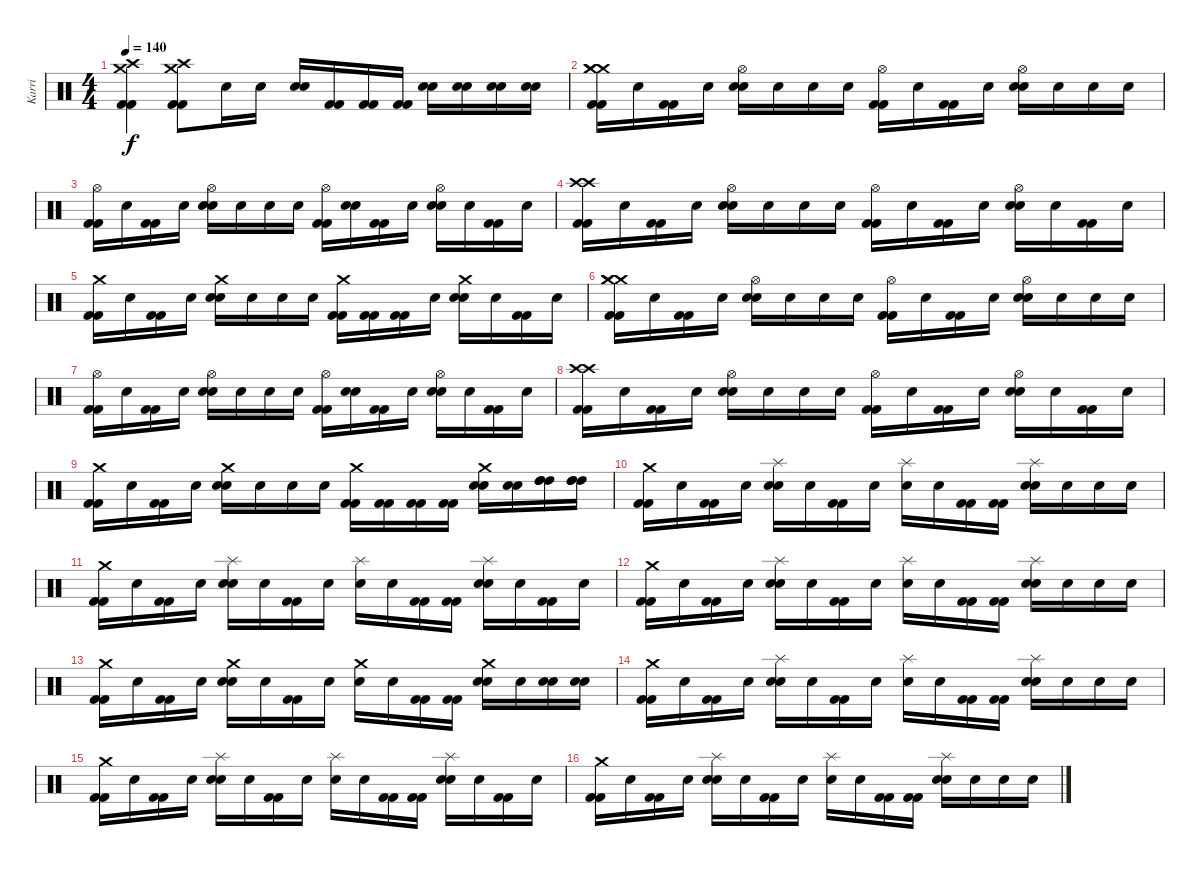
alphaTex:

\track ("Karri" "Karri") {instrument percussion}
\staff {score}
\articulation defaults
\ts (4 4)
\tempo 140
\clef neutral
\ks c
("Crash high (hit)" "Crash medium (hit)" "Kick (hit) 2" "Kick (hit) 2").4{dy f} ("Crash high (hit)" "Crash medium (hit)" "Kick (hit) 2" "Kick (hit) 2").8 "Snare (hit)"{x}.16 "Snare (hit)"{x}.16 ("Snare (hit) 2"{x} "Snare (hit) 2"{x}).16 ("Kick (hit) 2"{x} "Kick (hit) 2"{x}).16 ("Kick (hit) 2" "Kick (hit) 2").16 ("Kick (hit) 2" "Kick (hit) 2").16 ("Snare (hit) 2" "Snare (hit) 2").16 ("Snare (hit)"{x} "Snare (hit)"{x}).16 ("Snare (hit)"{x} "Snare (hit)"{x}).16 ("Snare (hit)"{x} "Snare (hit)"{x}).16 |
("Crash medium (hit)" "Crash medium (hit)" "Crash medium (hit)" "Kick (hit) 2" "Kick (hit) 2").16 "Snare (hit)"{x}.16 ("Kick (hit) 2"{x} "Kick (hit) 2"{x}).16 "Snare (hit)"{x}.16 ("Hi-Hat (open)" "Snare (hit) 2" "Snare (hit) 2").16 "Snare (hit)"{x}.16 "Snare (hit)"{x}.16 "Snare (hit)"{x}.16 ("Hi-Hat (open)" "Kick (hit) 2" "Kick (hit) 2").16 "Snare (hit)"{x}.16 ("Kick (hit) 2" "Kick (hit) 2").16 "Snare (hit)"{x}.16 ("Hi-Hat (open)" "Snare (hit) 2" "Snare (hit) 2").16 "Snare (hit)"{x}.16 "Snare (hit)"{x}.16 "Snare (hit)"{x}.16 |
("Hi-Hat (open)" "Kick (hit) 2" "Kick (hit) 2").16 "Snare (hit)"{x}.16 ("Kick (hit) 2"{x} "Kick (hit) 2"{x}).16 "Snare (hit)"{x}.16 ("Hi-Hat (open)" "Snare (hit) 2" "Snare (hit) 2").16 "Snare (hit)"{x}.16 "Snare (hit)"{x}.16 "Snare (hit)"{x}.16 ("Hi-Hat (open)" "Kick (hit) 2" "Kick (hit) 2").16 ("Snare (hit)"{x} "Snare (hit)"{x}).16 ("Kick (hit) 2" "Kick (hit) 2").16 "Snare (hit)"{x}.16 ("Hi-Hat (open)" "Snare (hit) 2" "Snare (hit) 2").16 "Snare (hit)"{x}.16 ("Kick (hit) 2" "Kick (hit) 2").16 "Snare (hit)"{x}.16 |
("Crash high (hit)" "Crash high (hit)" "Kick (hit) 2" "Kick (hit) 2").16 "Snare (hit)"{x}.16 ("Kick (hit) 2"{x} "Kick (hit) 2"{x}).16 "Snare (hit)"{x}.16 ("Hi-Hat (open)" "Snare (hit) 2" "Snare (hit) 2").16 "Snare (hit)"{x}.16 "Snare (hit)"{x}.16 "Snare (hit)"{x}.16 ("Hi-Hat (open)" "Kick (hit) 2" "Kick (hit) 2").16 "Snare (hit)"{x}.16 ("Kick (hit) 2" "Kick (hit) 2").16 "Snare (hit)"{x}.16 ("Hi-Hat (open)" "Snare (hit) 2" "Snare (hit) 2").16 "Snare (hit)"{x}.16 ("Kick (hit) 2"{x} "Kick (hit) 2"{x}).16 "Snare (hit)"{x}.16 |
("Crash medium (hit)" "Kick (hit) 2" "Kick (hit) 2").16 "Snare (hit)"{x}.16 ("Kick (hit) 2" "Kick (hit) 2").16 "Snare (hit)"{x}.16 ("Crash medium (hit)" "Snare (hit) 2" "Snare (hit) 2").16 "Snare (hit)"{x}.16 "Snare (hit)"{x}.16 "Snare (hit)"{x}.16 ("Crash medium (hit)" "Kick (hit) 2"{x} "Kick (hit) 2"{x}).16 ("Kick (hit) 2"{x} "Kick (hit) 2"{x}).16 ("Kick (hit) 2" "Kick (hit) 2").16 "Snare (hit) 2"{x}.16 ("Crash medium (hit)" "Snare (hit) 2" "Snare (hit) 2").16 "Snare (hit)"{x}.16 ("Kick (hit) 2" "Kick (hit) 2").16 "Snare (hit)"{x}.16 |
("Crash medium (hit)" "Crash medium (hit)" "Crash medium (hit)" "Kick (hit) 2" "Kick (hit) 2").16 "Snare (hit)"{x}.16 ("Kick (hit) 2"{x} "Kick (hit) 2"{x}).16 "Snare (hit)"{x}.16 ("Hi-Hat (open)" "Snare (hit) 2" "Snare (hit) 2").16 "Snare (hit)"{x}.16 "Snare (hit)"{x}.16 "Snare (hit)"{x}.16 ("Hi-Hat (open)" "Kick (hit) 2" "Kick (hit) 2").16 "Snare (hit)"{x}.16 ("Kick (hit) 2" "Kick (hit) 2").16 "Snare (hit)"{x}.16 ("Hi-Hat (open)" "Snare (hit) 2" "Snare (hit) 2").16 "Snare (hit)"{x}.16 "Snare (hit)"{x}.16 "Snare (hit)"{x}.16 |
("Hi-Hat (open)" "Kick (hit) 2" "Kick (hit) 2").16 "Snare (hit)"{x}.16 ("Kick (hit) 2"{x} "Kick (hit) 2"{x}).16 "Snare (hit)"{x}.16 ("Hi-Hat (open)" "Snare (hit) 2" "Snare (hit) 2").16 "Snare (hit)"{x}.16 "Snare (hit)"{x}.16 "Snare (hit)"{x}.16 ("Hi-Hat (open)" "Kick (hit) 2" "Kick (hit) 2").16 ("Snare (hit)"{x} "Snare (hit)"{x}).16 ("Kick (hit) 2" "Kick (hit) 2").16 "Snare (hit)"{x}.16 ("Hi-Hat (open)" "Snare (hit) 2" "Snare (hit) 2").16 "Snare (hit)"{x}.16 ("Kick (hit) 2" "Kick (hit) 2").16 "Snare (hit)"{x}.16 |
("Crash high (hit)" "Crash high (hit)" "Kick (hit) 2" "Kick (hit) 2").16 "Snare (hit)"{x}.16 ("Kick (hit) 2"{x} "Kick (hit) 2"{x}).16 "Snare (hit)"{x}.16 ("Hi-Hat (open)" "Snare (hit) 2" "Snare (hit) 2").16 "Snare (hit)"{x}.16 "Snare (hit)"{x}.16 "Snare (hit)"{x}.16 ("Hi-Hat (open)" "Kick (hit) 2" "Kick (hit) 2").16 "Snare (hit)"{x}.16 ("Kick (hit) 2" "Kick (hit) 2").16 "Snare (hit)"{x}.16 ("Hi-Hat (open)" "Snare (hit) 2" "Snare (hit) 2").16 "Snare (hit)"{x}.16 ("Kick (hit) 2"{x} "Kick (hit) 2"{x}).16 "Snare (hit)"{x}.16 |
("Crash medium (hit)" "Kick (hit) 2" "Kick (hit) 2").16 "Snare (hit)"{x}.16 ("Kick (hit) 2" "Kick (hit) 2").16 "Snare (hit)"{x}.16 ("Crash medium (hit)" "Snare (hit) 2" "Snare (hit) 2").16 "Snare (hit)"{x}.16 "Snare (hit)"{x}.16 "Snare (hit)"{x}.16 ("Crash medium (hit)" "Kick (hit) 2"{x} "Kick (hit) 2"{x}).16 ("Kick (hit) 2"{x} "Kick (hit) 2"{x}).16 ("Kick (hit) 2" "Kick (hit) 2").16 ("Kick (hit) 2" "Kick (hit) 2").16 ("Crash medium (hit)" "Snare (hit) 2" "Snare (hit) 2").16 ("Snare (hit) 2" "Snare (hit) 2").16 ("High Tom (hit)" "High Tom (hit)" "High Tom (hit)").16 ("High Tom (hit)" "High Tom (hit)" "High Tom (hit)").16 |
("Crash medium (hit)" "Kick (hit) 2" "Kick (hit) 2").16 "Snare (hit)"{x}.16 ("Kick (hit) 2" "Kick (hit) 2").16 "Snare (hit)"{x}.16 ("Splash (hit)" "Snare (hit) 2" "Snare (hit) 2").16 "Snare (hit)"{x}.16 ("Kick (hit) 2" "Kick (hit) 2").16 "Snare (hit)"{x}.16 ("Splash (hit)" "Snare (hit)"{x}).16 "Snare (hit)"{x}.16 ("Kick (hit) 2" "Kick (hit) 2").16 ("Kick (hit) 2" "Kick (hit) 2").16 ("Splash (hit)" "Snare (hit) 2" "Snare (hit) 2").16 "Snare (hit)"{x}.16 "Snare (hit)"{x}.16 "Snare (hit)"{x}.16 |
("Crash medium (hit)" "Kick (hit) 2" "Kick (hit) 2").16 "Snare (hit)"{x}.16 ("Kick (hit) 2" "Kick (hit) 2").16 "Snare (hit)"{x}.16 ("Splash (hit)" "Snare (hit) 2" "Snare (hit) 2").16 "Snare (hit)"{x}.16 ("Kick (hit) 2" "Kick (hit) 2").16 "Snare (hit)"{x}.16 ("Splash (hit)" "Snare (hit)"{x}).16 "Snare (hit)"{x}.16 ("Kick (hit) 2" "Kick (hit) 2").16 ("Kick (hit) 2" "Kick (hit) 2").16 ("Splash (hit)" "Snare (hit) 2" "Snare (hit) 2").16 "Snare (hit)"{x}.16 ("Kick (hit) 2" "Kick (hit) 2").16 "Snare (hit)"{x}.16 |
("Crash medium (hit)" "Kick (hit) 2" "Kick (hit) 2").16 "Snare (hit)"{x}.16 ("Kick (hit) 2" "Kick (hit) 2").16 "Snare (hit)"{x}.16 ("Splash (hit)" "Snare (hit) 2" "Snare (hit) 2").16 "Snare (hit)"{x}.16 ("Kick (hit) 2" "Kick (hit) 2").16 "Snare (hit)"{x}.16 ("Splash (hit)" "Snare (hit)"{x}).16 "Snare (hit)"{x}.16 ("Kick (hit) 2" "Kick (hit) 2").16 ("Kick (hit) 2" "Kick (hit) 2").16 ("Splash (hit)" "Snare (hit) 2" "Snare (hit) 2").16 "Snare (hit)"{x}.16 "Snare (hit)"{x}.16 "Snare (hit)"{x}.16 |
("Crash medium (hit)" "Kick (hit) 2" "Kick (hit) 2").16 "Snare (hit)"{x}.16 ("Kick (hit) 2" "Kick (hit) 2").16 "Snare (hit)"{x}.16 ("Crash medium (hit)" "Snare (hit) 2" "Snare (hit) 2").16 "Snare (hit)"{x}.16 ("Kick (hit) 2" "Kick (hit) 2").16 "Snare (hit)"{x}.16 ("Crash medium (hit)" "Snare (hit)"{x}).16 "Snare (hit)"{x}.16 ("Kick (hit) 2" "Kick (hit) 2").16 ("Kick (hit) 2" "Kick (hit) 2").16 ("Crash medium (hit)" "Snare (hit) 2" "Snare (hit) 2").16 "Snare (hit)"{x}.16 ("Snare (hit) 2" "Snare (hit) 2").16 ("Snare (hit) 2" "Snare (hit) 2").16 |
("Crash medium (hit)" "Kick (hit) 2" "Kick (hit) 2").16 "Snare (hit)"{x}.16 ("Kick (hit) 2" "Kick (hit) 2").16 "Snare (hit)"{x}.16 ("Splash (hit)" "Snare (hit) 2" "Snare (hit) 2").16 "Snare (hit)"{x}.16 ("Kick (hit) 2" "Kick (hit) 2").16 "Snare (hit)"{x}.16 ("Splash (hit)" "Snare (hit)"{x}).16 "Snare (hit)"{x}.16 ("Kick (hit) 2" "Kick (hit) 2").16 ("Kick (hit) 2" "Kick (hit) 2").16 ("Splash (hit)" "Snare (hit) 2" "Snare (hit) 2").16 "Snare (hit)"{x}.16 "Snare (hit)"{x}.16 "Snare (hit)"{x}.16 |
("Crash medium (hit)" "Kick (hit) 2" "Kick (hit) 2").16 "Snare (hit)"{x}.16 ("Kick (hit) 2" "Kick (hit) 2").16 "Snare (hit)"{x}.16 ("Splash (hit)" "Snare (hit) 2" "Snare (hit) 2").16 "Snare (hit)"{x}.16 ("Kick (hit) 2" "Kick (hit) 2").16 "Snare (hit)"{x}.16 ("Splash (hit)" "Snare (hit)"{x}).16 "Snare (hit)"{x}.16 ("Kick (hit) 2" "Kick (hit) 2").16 ("Kick (hit) 2" "Kick (hit) 2").16 ("Splash (hit)" "Snare (hit) 2" "Snare (hit) 2").16 "Snare (hit)"{x}.16 ("Kick (hit) 2" "Kick (hit) 2").16 "Snare (hit)"{x}.16 |
("Crash medium (hit)" "Kick (hit) 2" "Kick (hit) 2").16 "Snare (hit)"{x}.16 ("Kick (hit) 2" "Kick (hit) 2").16 "Snare (hit)"{x}.16 ("Splash (hit)" "Snare (hit) 2" "Snare (hit) 2").16 "Snare (hit)"{x}.16 ("Kick (hit) 2" "Kick (hit) 2").16 "Snare (hit)"{x}.16 ("Splash (hit)" "Snare (hit)"{x}).16 "Snare (hit)"{x}.16 ("Kick (hit) 2" "Kick (hit) 2").16 ("Kick (hit) 2" "Kick (hit) 2").16 ("Splash (hit)" "Snare (hit) 2" "Snare (hit) 2").16 "Snare (hit)"{x}.16 "Snare (hit)"{x}.16 "Snare (hit)"{x}.16
